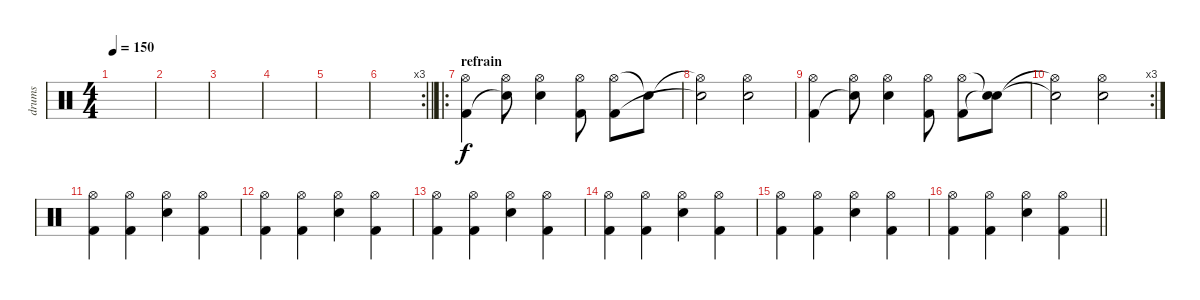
\track ("drums" "drums") {instrument percussion}
\staff {score}
\articulation defaults
\ts (4 4)
\tempo 150
\clef neutral
\ks c
|
|
|
|
|
\rc 3
\barLineRight lightlight
|
\ro
\section ("" "refrain")
("Hi-Hat (open)" "Kick (hit) 2").4 ("Hi-Hat (open)" "Snare (hit)"{t}).8 ("Hi-Hat (open)" "Electric Snare (hit)").4 ("Hi-Hat (open)" "Kick (hit) 2").8 ("Hi-Hat (open)" "Kick (hit) 2").8 "Snare (hit)"{t}.8 |
("Hi-Hat (open)"{t} "Electric Snare (hit)"{t}).2 ("Hi-Hat (open)" "Electric Snare (hit)").2 |
("Hi-Hat (open)" "Kick (hit) 2").4 ("Hi-Hat (open)" "Snare (hit)"{t}).8 ("Hi-Hat (open)" "Electric Snare (hit)").4 ("Hi-Hat (open)" "Kick (hit) 2").8 ("Hi-Hat (open)" "Kick (hit) 2").8 ("Snare (hit)"{t} "Snare (hit)"{t}).8 |
\rc 3
("Hi-Hat (open)"{t} "Electric Snare (hit)"{t}).2 ("Hi-Hat (open)" "Electric Snare (hit)").2 |
("Hi-Hat (open)" "Kick (hit) 2").4 ("Hi-Hat (open)" "Kick (hit) 2").4 ("Hi-Hat (open)" "Electric Snare (hit)").4 ("Hi-Hat (open)" "Kick (hit) 2").4 |
("Hi-Hat (open)" "Kick (hit) 2").4 ("Hi-Hat (open)" "Kick (hit) 2").4 ("Hi-Hat (open)" "Electric Snare (hit)").4 ("Hi-Hat (open)" "Kick (hit) 2").4 |
("Hi-Hat (open)" "Kick (hit) 2").4 ("Hi-Hat (open)" "Kick (hit) 2").4 ("Hi-Hat (open)" "Electric Snare (hit)").4 ("Hi-Hat (open)" "Kick (hit) 2").4 |
("Hi-Hat (open)" "Kick (hit) 2").4 ("Hi-Hat (open)" "Kick (hit) 2").4 ("Hi-Hat (open)" "Electric Snare (hit)").4 ("Hi-Hat (open)" "Kick (hit) 2").4 |
("Hi-Hat (open)" "Kick (hit) 2").4 ("Hi-Hat (open)" "Kick (hit) 2").4 ("Hi-Hat (open)" "Electric Snare (hit)").4 ("Hi-Hat (open)" "Kick (hit) 2").4 |
\barLineRight lightlight
("Hi-Hat (open)" "Kick (hit) 2").4 ("Hi-Hat (open)" "Kick (hit) 2").4 ("Hi-Hat (open)" "Electric Snare (hit)").4 ("Hi-Hat (open)" "Kick (hit) 2").4
